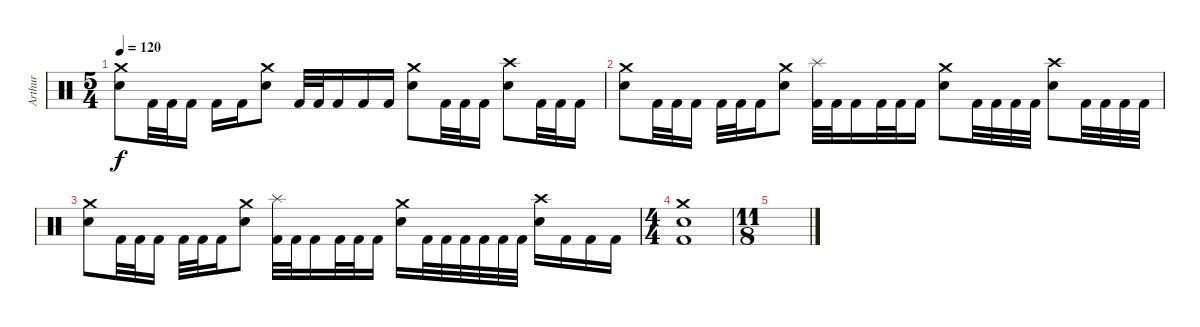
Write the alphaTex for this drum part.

\track ("Arthur" "Arthur") {instrument percussion}
\staff {score}
\articulation defaults
\ts (5 4)
\tempo 120
\clef neutral
\ks c
("Crash medium (hit)" "Electric Snare (hit)").8{dy f} "Kick (hit) 2".32 "Kick (hit) 2".32 "Kick (hit) 2".16 "Kick (hit) 2".16 "Kick (hit) 2".16 ("Crash medium (hit)" "Electric Snare (hit)").8 "Kick (hit) 2".32 "Kick (hit) 2".32 "Kick (hit) 2".16 "Kick (hit) 2".16 "Kick (hit) 2".16 ("Crash medium (hit)" "Electric Snare (hit)").8 "Kick (hit) 2".32 "Kick (hit) 2".32 "Kick (hit) 2".16 ("Crash high (hit)" "Electric Snare (hit)").8 "Kick (hit) 2".32 "Kick (hit) 2".32 "Kick (hit) 2".16 |
("Crash medium (hit)" "Electric Snare (hit)").8 "Kick (hit) 2".32 "Kick (hit) 2".32 "Kick (hit) 2".16 "Kick (hit) 2".32 "Kick (hit) 2".32 "Kick (hit) 2".16 ("Crash medium (hit)" "Electric Snare (hit)").8 ("Splash (hit)" "Kick (hit) 2").32 "Kick (hit) 2".32 "Kick (hit) 2".16 "Kick (hit) 2".32 "Kick (hit) 2".32 "Kick (hit) 2".16 ("Crash medium (hit)" "Electric Snare (hit)").8 "Kick (hit) 2".32 "Kick (hit) 2".32 "Kick (hit) 2".32 "Kick (hit) 2".32 ("Crash high (hit)" "Electric Snare (hit)").8 "Kick (hit) 2".32 "Kick (hit) 2".32 "Kick (hit) 2".32 "Kick (hit) 2".32 |
("Crash medium (hit)" "Electric Snare (hit)").8 "Kick (hit) 2".32 "Kick (hit) 2".32 "Kick (hit) 2".16 "Kick (hit) 2".32 "Kick (hit) 2".32 "Kick (hit) 2".16 ("Crash medium (hit)" "Electric Snare (hit)").8 ("Splash (hit)" "Kick (hit) 2").32 "Kick (hit) 2".32 "Kick (hit) 2".16 "Kick (hit) 2".32 "Kick (hit) 2".32 "Kick (hit) 2".16 ("Crash medium (hit)" "Electric Snare (hit)").16 "Kick (hit) 2".32 "Kick (hit) 2".32 "Kick (hit) 2".32 "Kick (hit) 2".32 "Kick (hit) 2".32 "Kick (hit) 2".32 ("Crash high (hit)" "Electric Snare (hit)").16 "Kick (hit) 2".16 "Kick (hit) 2".16 "Kick (hit) 2".16 |
\ts (4 4)
("Crash medium (hit)" "Electric Snare (hit)" "Kick (hit) 2").1 |
\ts (11 8)
